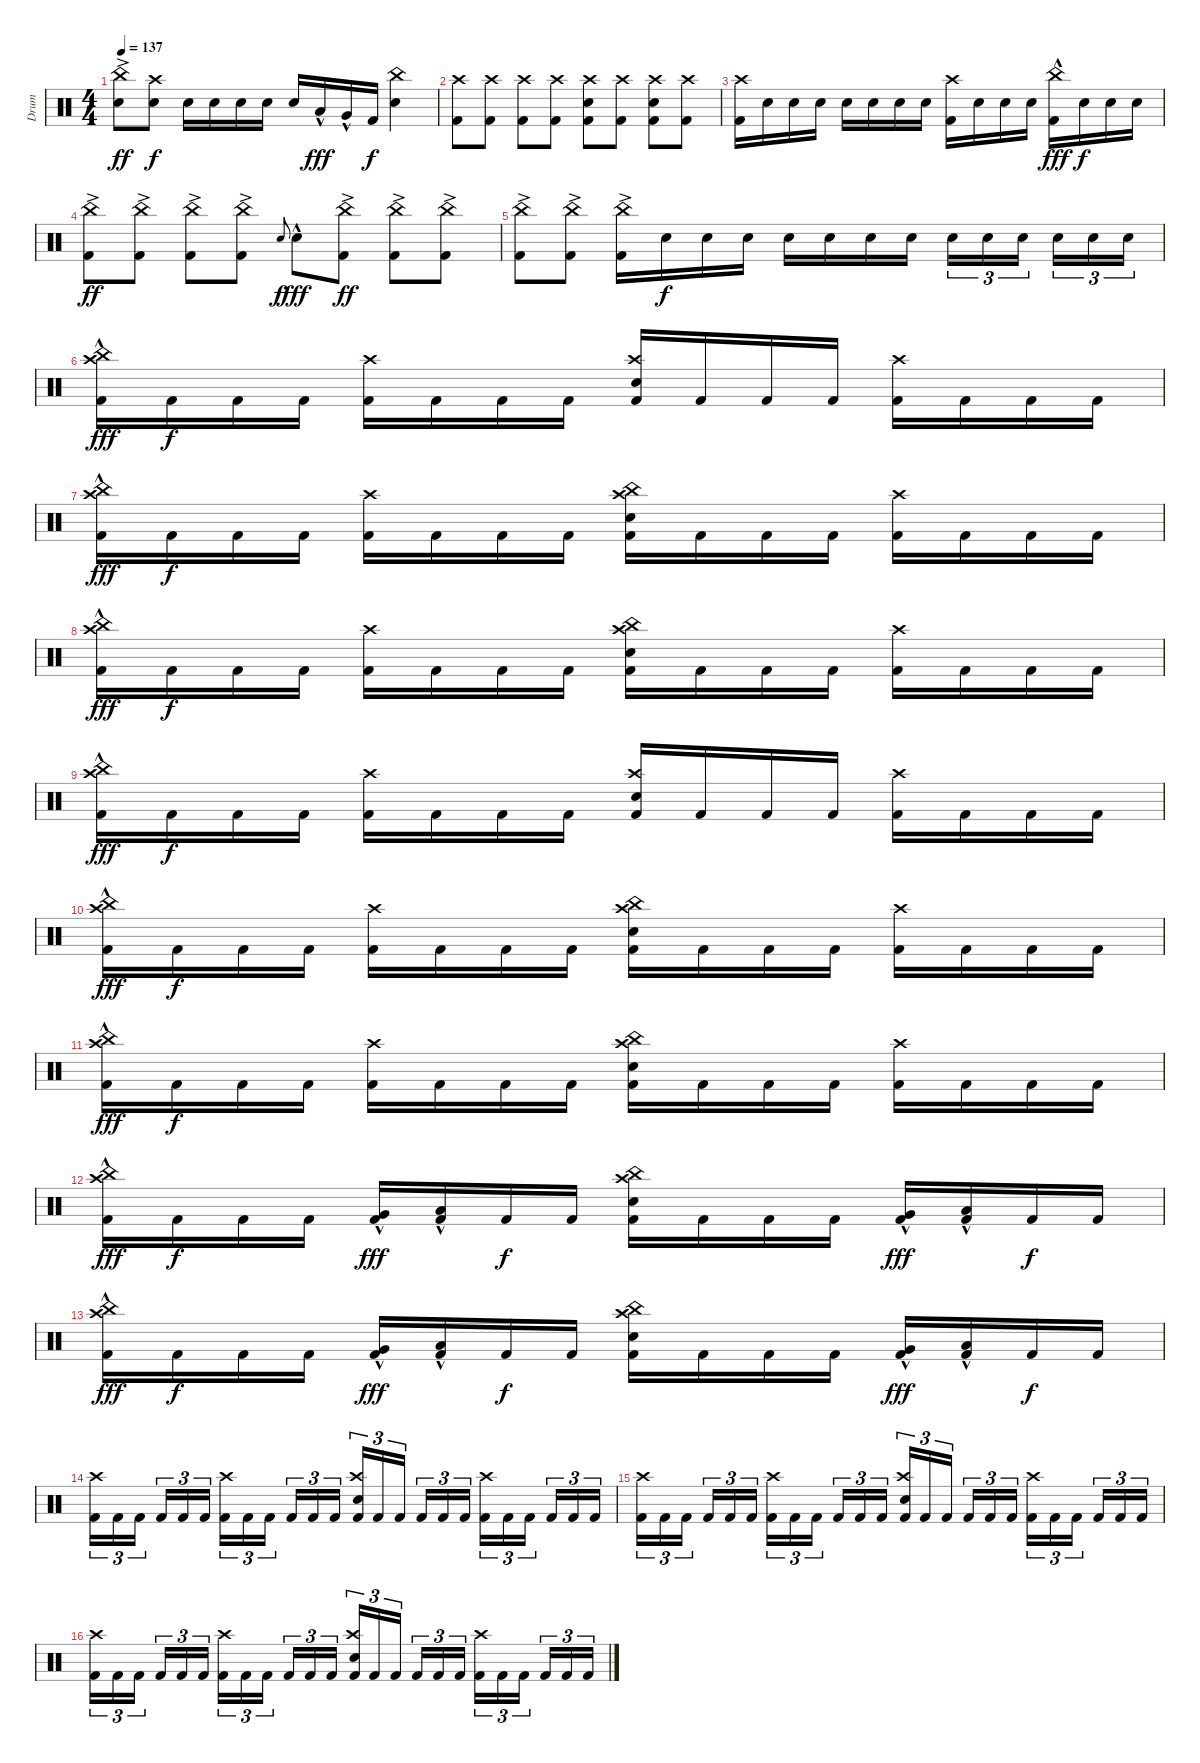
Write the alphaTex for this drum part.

\track ("Drum" "Drum") {instrument percussion}
\staff {score}
\articulation defaults
\ts (4 4)
\tempo 137
\clef neutral
\ks c
("China (hit)"{ac} "Electric Snare (hit)").8{dy ff} ("Crash high (hit)" "Electric Snare (hit)").8{dy f} "Electric Snare (hit)".16 "Electric Snare (hit)".16 "Electric Snare (hit)".16 "Electric Snare (hit)".16 "Electric Snare (hit)".16 "Low Tom (hit)"{hac}.16{dy fff} "Very Low Tom (hit)"{hac}.16 "Kick (hit) 2".16{dy f} ("China (hit)" "Electric Snare (hit)").4 |
("Crash high (hit)" "Kick (hit) 2").8 ("Crash high (hit)" "Kick (hit) 2").8 ("Crash high (hit)" "Kick (hit) 2").8 ("Crash high (hit)" "Kick (hit) 2").8 ("Crash high (hit)" "Electric Snare (hit)" "Kick (hit) 2").8 ("Crash high (hit)" "Kick (hit) 2").8 ("Crash high (hit)" "Electric Snare (hit)" "Kick (hit) 2").8 ("Crash high (hit)" "Kick (hit) 2").8 |
("Crash high (hit)" "Kick (hit) 2").16 "Electric Snare (hit)".16 "Electric Snare (hit)".16 "Electric Snare (hit)".16 "Electric Snare (hit)".16 "Electric Snare (hit)".16 "Electric Snare (hit)".16 "Electric Snare (hit)".16 ("Crash high (hit)" "Kick (hit) 2").16 "Electric Snare (hit)".16 "Electric Snare (hit)".16 "Electric Snare (hit)".16 ("China (hit)"{hac} "Kick (hit) 2").16{dy fff} "Electric Snare (hit)".16{dy f} "Electric Snare (hit)".16 "Electric Snare (hit)".16 |
("China (hit)"{ac} "Kick (hit) 2").8{dy ff} ("China (hit)"{ac} "Kick (hit) 2").8 ("China (hit)"{ac} "Kick (hit) 2").8 ("China (hit)"{ac} "Kick (hit) 2").8 "Electric Snare (hit)".8{gr onbeat dy f} "Electric Snare (hit)"{hac}.8{dy fff} ("China (hit)"{ac} "Kick (hit) 2").8{dy ff} ("China (hit)"{ac} "Kick (hit) 2").8 ("China (hit)"{ac} "Kick (hit) 2").8 |
("China (hit)"{ac} "Kick (hit) 2").8 ("China (hit)"{ac} "Kick (hit) 2").8 ("China (hit)"{ac} "Kick (hit) 2").16 "Electric Snare (hit)".16{dy f} "Electric Snare (hit)".16 "Electric Snare (hit)".16 "Electric Snare (hit)".16 "Electric Snare (hit)".16 "Electric Snare (hit)".16 "Electric Snare (hit)".16 "Electric Snare (hit)".16{tu (3 2)} "Electric Snare (hit)".16{tu (3 2)} "Electric Snare (hit)".16{tu (3 2) beam splitsecondary} "Electric Snare (hit)".16{tu (3 2)} "Electric Snare (hit)".16{tu (3 2)} "Electric Snare (hit)".16{tu (3 2)} |
("Crash high (hit)" "China (hit)"{hac} "Kick (hit) 2").16{dy fff} "Kick (hit) 2".16{dy f} "Kick (hit) 2".16 "Kick (hit) 2".16 ("Crash high (hit)" "Kick (hit) 2").16 "Kick (hit) 2".16 "Kick (hit) 2".16 "Kick (hit) 2".16 ("Crash high (hit)" "Electric Snare (hit)" "Kick (hit) 2").16 "Kick (hit) 2".16 "Kick (hit) 2".16 "Kick (hit) 2".16 ("Crash high (hit)" "Kick (hit) 2").16 "Kick (hit) 2".16 "Kick (hit) 2".16 "Kick (hit) 2".16 |
("Crash high (hit)" "China (hit)"{hac} "Kick (hit) 2").16{dy fff} "Kick (hit) 2".16{dy f} "Kick (hit) 2".16 "Kick (hit) 2".16 ("Crash high (hit)" "Kick (hit) 2").16 "Kick (hit) 2".16 "Kick (hit) 2".16 "Kick (hit) 2".16 ("Crash high (hit)" "China (hit)" "Electric Snare (hit)" "Kick (hit) 2").16 "Kick (hit) 2".16 "Kick (hit) 2".16 "Kick (hit) 2".16 ("Crash high (hit)" "Kick (hit) 2").16 "Kick (hit) 2".16 "Kick (hit) 2".16 "Kick (hit) 2".16 |
("Crash high (hit)" "China (hit)"{hac} "Kick (hit) 2").16{dy fff} "Kick (hit) 2".16{dy f} "Kick (hit) 2".16 "Kick (hit) 2".16 ("Crash high (hit)" "Kick (hit) 2").16 "Kick (hit) 2".16 "Kick (hit) 2".16 "Kick (hit) 2".16 ("Crash high (hit)" "China (hit)" "Electric Snare (hit)" "Kick (hit) 2").16 "Kick (hit) 2".16 "Kick (hit) 2".16 "Kick (hit) 2".16 ("Crash high (hit)" "Kick (hit) 2").16 "Kick (hit) 2".16 "Kick (hit) 2".16 "Kick (hit) 2".16 |
("Crash high (hit)" "China (hit)"{hac} "Kick (hit) 2").16{dy fff} "Kick (hit) 2".16{dy f} "Kick (hit) 2".16 "Kick (hit) 2".16 ("Crash high (hit)" "Kick (hit) 2").16 "Kick (hit) 2".16 "Kick (hit) 2".16 "Kick (hit) 2".16 ("Crash high (hit)" "Electric Snare (hit)" "Kick (hit) 2").16 "Kick (hit) 2".16 "Kick (hit) 2".16 "Kick (hit) 2".16 ("Crash high (hit)" "Kick (hit) 2").16 "Kick (hit) 2".16 "Kick (hit) 2".16 "Kick (hit) 2".16 |
("Crash high (hit)" "China (hit)"{hac} "Kick (hit) 2").16{dy fff} "Kick (hit) 2".16{dy f} "Kick (hit) 2".16 "Kick (hit) 2".16 ("Crash high (hit)" "Kick (hit) 2").16 "Kick (hit) 2".16 "Kick (hit) 2".16 "Kick (hit) 2".16 ("Crash high (hit)" "China (hit)" "Electric Snare (hit)" "Kick (hit) 2").16 "Kick (hit) 2".16 "Kick (hit) 2".16 "Kick (hit) 2".16 ("Crash high (hit)" "Kick (hit) 2").16 "Kick (hit) 2".16 "Kick (hit) 2".16 "Kick (hit) 2".16 |
("Crash high (hit)" "China (hit)"{hac} "Kick (hit) 2").16{dy fff} "Kick (hit) 2".16{dy f} "Kick (hit) 2".16 "Kick (hit) 2".16 ("Crash high (hit)" "Kick (hit) 2").16 "Kick (hit) 2".16 "Kick (hit) 2".16 "Kick (hit) 2".16 ("Crash high (hit)" "China (hit)" "Electric Snare (hit)" "Kick (hit) 2").16 "Kick (hit) 2".16 "Kick (hit) 2".16 "Kick (hit) 2".16 ("Crash high (hit)" "Kick (hit) 2").16 "Kick (hit) 2".16 "Kick (hit) 2".16 "Kick (hit) 2".16 |
("Crash high (hit)" "China (hit)"{hac} "Kick (hit) 2").16{dy fff} "Kick (hit) 2".16{dy f} "Kick (hit) 2".16 "Kick (hit) 2".16 ("Very Low Tom (hit)"{hac} "Kick (hit) 2").16{dy fff} ("Low Floor Tom (hit)"{hac} "Kick (hit) 2").16 "Kick (hit) 2".16{dy f} "Kick (hit) 2".16 ("Crash high (hit)" "China (hit)" "Electric Snare (hit)" "Kick (hit) 2").16 "Kick (hit) 2".16 "Kick (hit) 2".16 "Kick (hit) 2".16 ("Very Low Tom (hit)"{hac} "Kick (hit) 2").16{dy fff} ("Low Floor Tom (hit)"{hac} "Kick (hit) 2").16 "Kick (hit) 2".16{dy f} "Kick (hit) 2".16 |
("Crash high (hit)" "China (hit)"{hac} "Kick (hit) 2").16{dy fff} "Kick (hit) 2".16{dy f} "Kick (hit) 2".16 "Kick (hit) 2".16 ("Very Low Tom (hit)"{hac} "Kick (hit) 2").16{dy fff} ("Low Floor Tom (hit)"{hac} "Kick (hit) 2").16 "Kick (hit) 2".16{dy f} "Kick (hit) 2".16 ("Crash high (hit)" "China (hit)" "Electric Snare (hit)" "Kick (hit) 2").16 "Kick (hit) 2".16 "Kick (hit) 2".16 "Kick (hit) 2".16 ("Very Low Tom (hit)"{hac} "Kick (hit) 2").16{dy fff} ("Low Floor Tom (hit)"{hac} "Kick (hit) 2").16 "Kick (hit) 2".16{dy f} "Kick (hit) 2".16 |
("Crash high (hit)" "Kick (hit) 2").16{tu (3 2)} "Kick (hit) 2".16{tu (3 2)} "Kick (hit) 2".16{tu (3 2) beam splitsecondary} "Kick (hit) 2".16{tu (3 2)} "Kick (hit) 2".16{tu (3 2)} "Kick (hit) 2".16{tu (3 2)} ("Crash high (hit)" "Kick (hit) 2").16{tu (3 2)} "Kick (hit) 2".16{tu (3 2)} "Kick (hit) 2".16{tu (3 2) beam splitsecondary} "Kick (hit) 2".16{tu (3 2)} "Kick (hit) 2".16{tu (3 2)} "Kick (hit) 2".16{tu (3 2)} ("Crash high (hit)" "Electric Snare (hit)" "Kick (hit) 2").16{tu (3 2)} "Kick (hit) 2".16{tu (3 2)} "Kick (hit) 2".16{tu (3 2) beam splitsecondary} "Kick (hit) 2".16{tu (3 2)} "Kick (hit) 2".16{tu (3 2)} "Kick (hit) 2".16{tu (3 2)} ("Crash high (hit)" "Kick (hit) 2").16{tu (3 2)} "Kick (hit) 2".16{tu (3 2)} "Kick (hit) 2".16{tu (3 2) beam splitsecondary} "Kick (hit) 2".16{tu (3 2)} "Kick (hit) 2".16{tu (3 2)} "Kick (hit) 2".16{tu (3 2)} |
("Crash high (hit)" "Kick (hit) 2").16{tu (3 2)} "Kick (hit) 2".16{tu (3 2)} "Kick (hit) 2".16{tu (3 2) beam splitsecondary} "Kick (hit) 2".16{tu (3 2)} "Kick (hit) 2".16{tu (3 2)} "Kick (hit) 2".16{tu (3 2)} ("Crash high (hit)" "Kick (hit) 2").16{tu (3 2)} "Kick (hit) 2".16{tu (3 2)} "Kick (hit) 2".16{tu (3 2) beam splitsecondary} "Kick (hit) 2".16{tu (3 2)} "Kick (hit) 2".16{tu (3 2)} "Kick (hit) 2".16{tu (3 2)} ("Crash high (hit)" "Electric Snare (hit)" "Kick (hit) 2").16{tu (3 2)} "Kick (hit) 2".16{tu (3 2)} "Kick (hit) 2".16{tu (3 2) beam splitsecondary} "Kick (hit) 2".16{tu (3 2)} "Kick (hit) 2".16{tu (3 2)} "Kick (hit) 2".16{tu (3 2)} ("Crash high (hit)" "Kick (hit) 2").16{tu (3 2)} "Kick (hit) 2".16{tu (3 2)} "Kick (hit) 2".16{tu (3 2) beam splitsecondary} "Kick (hit) 2".16{tu (3 2)} "Kick (hit) 2".16{tu (3 2)} "Kick (hit) 2".16{tu (3 2)} |
("Crash high (hit)" "Kick (hit) 2").16{tu (3 2)} "Kick (hit) 2".16{tu (3 2)} "Kick (hit) 2".16{tu (3 2) beam splitsecondary} "Kick (hit) 2".16{tu (3 2)} "Kick (hit) 2".16{tu (3 2)} "Kick (hit) 2".16{tu (3 2)} ("Crash high (hit)" "Kick (hit) 2").16{tu (3 2)} "Kick (hit) 2".16{tu (3 2)} "Kick (hit) 2".16{tu (3 2) beam splitsecondary} "Kick (hit) 2".16{tu (3 2)} "Kick (hit) 2".16{tu (3 2)} "Kick (hit) 2".16{tu (3 2)} ("Crash high (hit)" "Electric Snare (hit)" "Kick (hit) 2").16{tu (3 2)} "Kick (hit) 2".16{tu (3 2)} "Kick (hit) 2".16{tu (3 2) beam splitsecondary} "Kick (hit) 2".16{tu (3 2)} "Kick (hit) 2".16{tu (3 2)} "Kick (hit) 2".16{tu (3 2)} ("Crash high (hit)" "Kick (hit) 2").16{tu (3 2)} "Kick (hit) 2".16{tu (3 2)} "Kick (hit) 2".16{tu (3 2) beam splitsecondary} "Kick (hit) 2".16{tu (3 2)} "Kick (hit) 2".16{tu (3 2)} "Kick (hit) 2".16{tu (3 2)}
